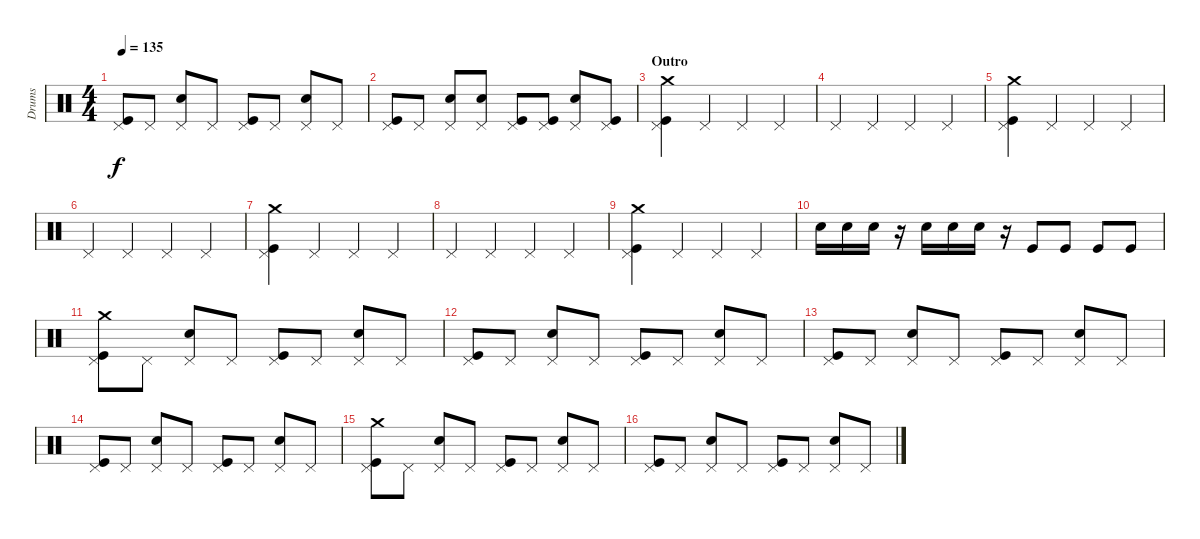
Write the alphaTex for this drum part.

\track ("Drums" "Drums") {instrument percussion}
\staff {score}
\articulation defaults
\ts (4 4)
\tempo 135
\clef neutral
\ks c
("Pedal Hi-Hat (hit)" "Kick (hit)").8{dy f} "Pedal Hi-Hat (hit)".8 ("Pedal Hi-Hat (hit)" "Electric Snare (hit)").8 "Pedal Hi-Hat (hit)".8 ("Pedal Hi-Hat (hit)" "Kick (hit)").8 "Pedal Hi-Hat (hit)".8 ("Pedal Hi-Hat (hit)" "Electric Snare (hit)").8 "Pedal Hi-Hat (hit)".8 |
("Pedal Hi-Hat (hit)" "Kick (hit)").8 "Pedal Hi-Hat (hit)".8 ("Pedal Hi-Hat (hit)" "Electric Snare (hit)").8 ("Pedal Hi-Hat (hit)" "Electric Snare (hit)").8 ("Pedal Hi-Hat (hit)" "Kick (hit)").8 ("Pedal Hi-Hat (hit)" "Kick (hit)").8 ("Pedal Hi-Hat (hit)" "Electric Snare (hit)").8 ("Pedal Hi-Hat (hit)" "Kick (hit)").8 |
\section ("" "Outro")
("Pedal Hi-Hat (hit)" "Kick (hit)" "Crash medium (hit)").4 "Pedal Hi-Hat (hit)".4 "Pedal Hi-Hat (hit)".4 "Pedal Hi-Hat (hit)".4 |
"Pedal Hi-Hat (hit)".4 "Pedal Hi-Hat (hit)".4 "Pedal Hi-Hat (hit)".4 "Pedal Hi-Hat (hit)".4 |
("Pedal Hi-Hat (hit)" "Kick (hit)" "Crash medium (hit)").4 "Pedal Hi-Hat (hit)".4 "Pedal Hi-Hat (hit)".4 "Pedal Hi-Hat (hit)".4 |
"Pedal Hi-Hat (hit)".4 "Pedal Hi-Hat (hit)".4 "Pedal Hi-Hat (hit)".4 "Pedal Hi-Hat (hit)".4 |
("Pedal Hi-Hat (hit)" "Kick (hit)" "Crash medium (hit)").4 "Pedal Hi-Hat (hit)".4 "Pedal Hi-Hat (hit)".4 "Pedal Hi-Hat (hit)".4 |
"Pedal Hi-Hat (hit)".4 "Pedal Hi-Hat (hit)".4 "Pedal Hi-Hat (hit)".4 "Pedal Hi-Hat (hit)".4 |
("Pedal Hi-Hat (hit)" "Kick (hit)" "Crash medium (hit)").4 "Pedal Hi-Hat (hit)".4 "Pedal Hi-Hat (hit)".4 "Pedal Hi-Hat (hit)".4 |
"Electric Snare (hit)".16 "Electric Snare (hit)".16 "Electric Snare (hit)".16 r.16 "Electric Snare (hit)".16 "Electric Snare (hit)".16 "Electric Snare (hit)".16 r.16 "Kick (hit)".8 "Kick (hit)".8 "Kick (hit)".8 "Kick (hit)".8 |
("Pedal Hi-Hat (hit)" "Kick (hit)" "Crash medium (hit)").8 "Pedal Hi-Hat (hit)".8 ("Pedal Hi-Hat (hit)" "Electric Snare (hit)").8 "Pedal Hi-Hat (hit)".8 ("Pedal Hi-Hat (hit)" "Kick (hit)").8 "Pedal Hi-Hat (hit)".8 ("Pedal Hi-Hat (hit)" "Electric Snare (hit)").8 "Pedal Hi-Hat (hit)".8 |
("Pedal Hi-Hat (hit)" "Kick (hit)").8 "Pedal Hi-Hat (hit)".8 ("Pedal Hi-Hat (hit)" "Electric Snare (hit)").8 "Pedal Hi-Hat (hit)".8 ("Pedal Hi-Hat (hit)" "Kick (hit)").8 "Pedal Hi-Hat (hit)".8 ("Pedal Hi-Hat (hit)" "Electric Snare (hit)").8 "Pedal Hi-Hat (hit)".8 |
("Pedal Hi-Hat (hit)" "Kick (hit)").8 "Pedal Hi-Hat (hit)".8 ("Pedal Hi-Hat (hit)" "Electric Snare (hit)").8 "Pedal Hi-Hat (hit)".8 ("Pedal Hi-Hat (hit)" "Kick (hit)").8 "Pedal Hi-Hat (hit)".8 ("Pedal Hi-Hat (hit)" "Electric Snare (hit)").8 "Pedal Hi-Hat (hit)".8 |
("Pedal Hi-Hat (hit)" "Kick (hit)").8 "Pedal Hi-Hat (hit)".8 ("Pedal Hi-Hat (hit)" "Electric Snare (hit)").8 "Pedal Hi-Hat (hit)".8 ("Pedal Hi-Hat (hit)" "Kick (hit)").8 "Pedal Hi-Hat (hit)".8 ("Pedal Hi-Hat (hit)" "Electric Snare (hit)").8 "Pedal Hi-Hat (hit)".8 |
("Pedal Hi-Hat (hit)" "Kick (hit)" "Crash medium (hit)").8 "Pedal Hi-Hat (hit)".8 ("Pedal Hi-Hat (hit)" "Electric Snare (hit)").8 "Pedal Hi-Hat (hit)".8 ("Pedal Hi-Hat (hit)" "Kick (hit)").8 "Pedal Hi-Hat (hit)".8 ("Pedal Hi-Hat (hit)" "Electric Snare (hit)").8 "Pedal Hi-Hat (hit)".8 |
("Pedal Hi-Hat (hit)" "Kick (hit)").8 "Pedal Hi-Hat (hit)".8 ("Pedal Hi-Hat (hit)" "Electric Snare (hit)").8 "Pedal Hi-Hat (hit)".8 ("Pedal Hi-Hat (hit)" "Kick (hit)").8 "Pedal Hi-Hat (hit)".8 ("Pedal Hi-Hat (hit)" "Electric Snare (hit)").8 "Pedal Hi-Hat (hit)".8
